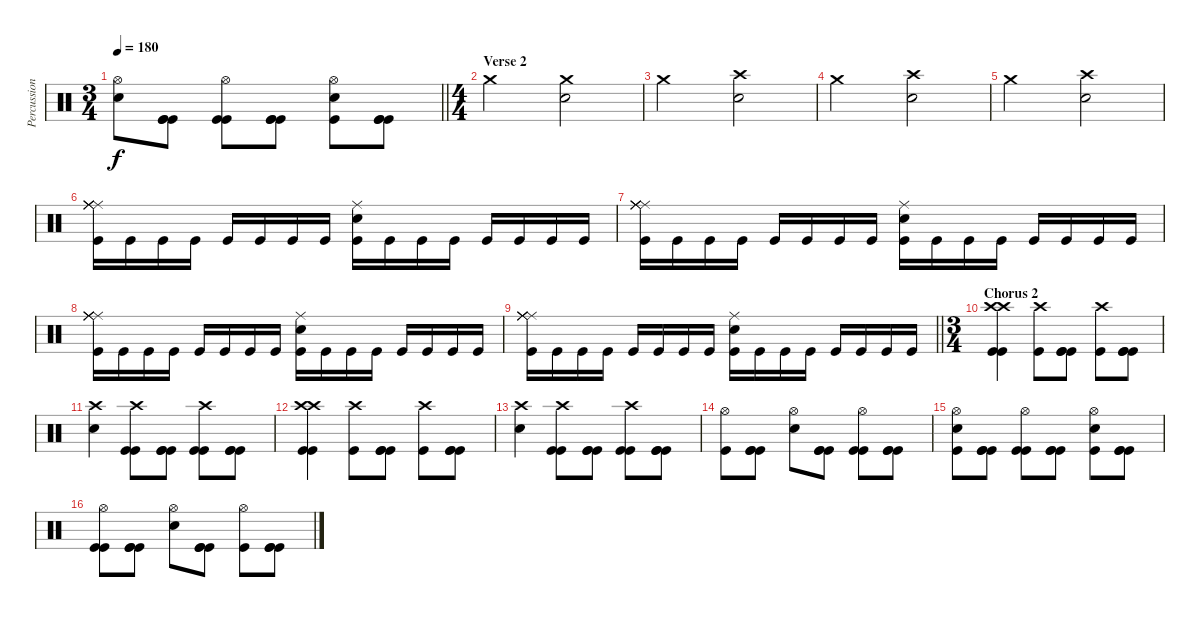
\track ("Percussion" "Percussion") {instrument percussion}
\staff {score}
\articulation defaults
\ts (3 4)
\tempo 180
\clef neutral
\barLineRight lightlight
\ks c
("Hi-Hat (open)" "Electric Snare (hit)").8{dy f} ("Kick (hit)" "Kick (hit)" "Kick (hit)").8 ("Hi-Hat (open)" "Kick (hit)" "Kick (hit)").8 ("Kick (hit)" "Kick (hit)" "Kick (hit)").8 ("Hi-Hat (open)" "Kick (hit)" "Electric Snare (hit)").8 ("Kick (hit)" "Kick (hit)" "Kick (hit)").8 |
\ts (4 4)
\section ("" "Verse 2")
"Crash medium (hit)".2 ("Crash medium (hit)" "Electric Snare (hit)").2 |
"Crash medium (hit)".2 ("Crash high (hit)" "Electric Snare (hit)").2 |
"Crash medium (hit)".2 ("Crash high (hit)" "Electric Snare (hit)").2 |
"Crash medium (hit)".2 ("Crash high (hit)" "Electric Snare (hit)").2 |
("Ride (middle)" "Ride (middle)" "Ride (middle)" "Ride (middle)" "Ride (middle)" "Kick (hit)").16 "Kick (hit)".16 "Kick (hit)".16 "Kick (hit)".16 "Kick (hit)".16 "Kick (hit)".16 "Kick (hit)".16 "Kick (hit)".16 ("Electric Snare (hit)" "Ride (middle)" "Kick (hit)").16 "Kick (hit)".16 "Kick (hit)".16 "Kick (hit)".16 "Kick (hit)".16 "Kick (hit)".16 "Kick (hit)".16 "Kick (hit)".16 |
("Ride (middle)" "Ride (middle)" "Ride (middle)" "Ride (middle)" "Ride (middle)" "Kick (hit)").16 "Kick (hit)".16 "Kick (hit)".16 "Kick (hit)".16 "Kick (hit)".16 "Kick (hit)".16 "Kick (hit)".16 "Kick (hit)".16 ("Electric Snare (hit)" "Ride (middle)" "Kick (hit)").16 "Kick (hit)".16 "Kick (hit)".16 "Kick (hit)".16 "Kick (hit)".16 "Kick (hit)".16 "Kick (hit)".16 "Kick (hit)".16 |
("Ride (middle)" "Ride (middle)" "Ride (middle)" "Ride (middle)" "Ride (middle)" "Kick (hit)").16 "Kick (hit)".16 "Kick (hit)".16 "Kick (hit)".16 "Kick (hit)".16 "Kick (hit)".16 "Kick (hit)".16 "Kick (hit)".16 ("Electric Snare (hit)" "Ride (middle)" "Kick (hit)").16 "Kick (hit)".16 "Kick (hit)".16 "Kick (hit)".16 "Kick (hit)".16 "Kick (hit)".16 "Kick (hit)".16 "Kick (hit)".16 |
\barLineRight lightlight
("Ride (middle)" "Ride (middle)" "Ride (middle)" "Ride (middle)" "Ride (middle)" "Kick (hit)").16 "Kick (hit)".16 "Kick (hit)".16 "Kick (hit)".16 "Kick (hit)".16 "Kick (hit)".16 "Kick (hit)".16 "Kick (hit)".16 ("Electric Snare (hit)" "Ride (middle)" "Kick (hit)").16 "Kick (hit)".16 "Kick (hit)".16 "Kick (hit)".16 "Kick (hit)".16 "Kick (hit)".16 "Kick (hit)".16 "Kick (hit)".16 |
\ts (3 4)
\section ("" "Chorus 2")
("Kick (hit)" "Crash high (hit)" "Crash high (hit)" "Kick (hit)").4 ("Crash high (hit)" "Kick (hit)").8 ("Kick (hit)" "Kick (hit)" "Kick (hit)").8 ("Crash high (hit)" "Kick (hit)").8 ("Kick (hit)" "Kick (hit)" "Kick (hit)").8 |
("Crash high (hit)" "Electric Snare (hit)").4 ("Crash high (hit)" "Kick (hit)" "Kick (hit)").8 ("Kick (hit)" "Kick (hit)" "Kick (hit)").8 ("Crash high (hit)" "Kick (hit)" "Kick (hit)").8 ("Kick (hit)" "Kick (hit)" "Kick (hit)").8 |
("Kick (hit)" "Crash high (hit)" "Crash high (hit)" "Kick (hit)").4 ("Crash high (hit)" "Kick (hit)").8 ("Kick (hit)" "Kick (hit)" "Kick (hit)").8 ("Crash high (hit)" "Kick (hit)").8 ("Kick (hit)" "Kick (hit)" "Kick (hit)").8 |
("Crash high (hit)" "Electric Snare (hit)").4 ("Crash high (hit)" "Kick (hit)" "Kick (hit)").8 ("Kick (hit)" "Kick (hit)" "Kick (hit)").8 ("Crash high (hit)" "Kick (hit)" "Kick (hit)").8 ("Kick (hit)" "Kick (hit)" "Kick (hit)").8 |
("Hi-Hat (open)" "Kick (hit)").8 ("Kick (hit)" "Kick (hit)" "Kick (hit)").8 ("Hi-Hat (open)" "Electric Snare (hit)").8 ("Kick (hit)" "Kick (hit)" "Kick (hit)").8 ("Hi-Hat (open)" "Kick (hit)" "Kick (hit)").8 ("Kick (hit)" "Kick (hit)" "Kick (hit)").8 |
("Hi-Hat (open)" "Electric Snare (hit)" "Kick (hit)").8 ("Kick (hit)" "Kick (hit)" "Kick (hit)").8 ("Hi-Hat (open)" "Kick (hit)" "Kick (hit)").8 ("Kick (hit)" "Kick (hit)" "Kick (hit)").8 ("Hi-Hat (open)" "Electric Snare (hit)" "Kick (hit)").8 ("Kick (hit)" "Kick (hit)" "Kick (hit)").8 |
("Hi-Hat (open)" "Kick (hit)" "Kick (hit)").8 ("Kick (hit)" "Kick (hit)" "Kick (hit)").8 ("Hi-Hat (open)" "Electric Snare (hit)").8 ("Kick (hit)" "Kick (hit)" "Kick (hit)").8 ("Hi-Hat (open)" "Kick (hit)").8 ("Kick (hit)" "Kick (hit)" "Kick (hit)").8
